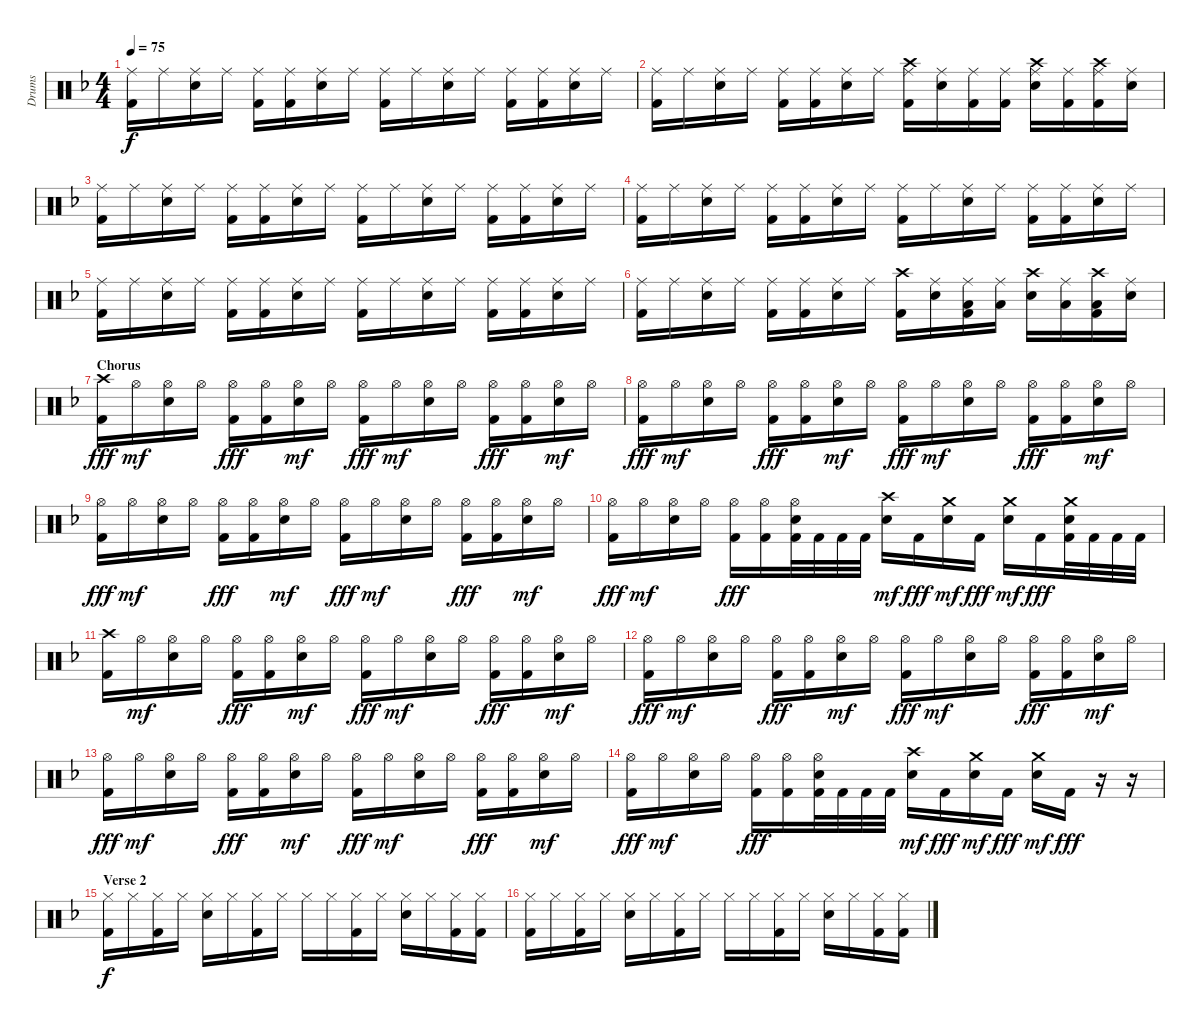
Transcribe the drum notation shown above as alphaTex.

\track ("Drums" "Drums") {instrument percussion}
\staff {score}
\articulation defaults
\ts (4 4)
\tempo 75
\clef neutral
\ks dminor
("Ride (middle)" "Kick (hit) 2").16{dy f} "Ride (middle)".16 ("Ride (middle)" "Snare (hit) 2").16 "Ride (middle)".16 ("Ride (middle)" "Kick (hit) 2").16 ("Ride (middle)" "Kick (hit) 2").16 ("Ride (middle)" "Snare (hit) 2").16 "Ride (middle)".16 ("Ride (middle)" "Kick (hit) 2").16 "Ride (middle)".16 ("Ride (middle)" "Snare (hit) 2").16 "Ride (middle)".16 ("Ride (middle)" "Kick (hit) 2").16 ("Ride (middle)" "Kick (hit) 2").16 ("Ride (middle)" "Snare (hit) 2").16 "Ride (middle)".16 |
("Ride (middle)" "Kick (hit) 2").16 "Ride (middle)".16 ("Ride (middle)" "Snare (hit) 2").16 "Ride (middle)".16 ("Ride (middle)" "Kick (hit) 2").16 ("Ride (middle)" "Kick (hit) 2").16 ("Ride (middle)" "Snare (hit) 2").16 "Ride (middle)".16 ("Ride (middle)" "Crash high (hit)" "Kick (hit) 2").16 ("Ride (middle)" "Snare (hit) 2").16 ("Ride (middle)" "Kick (hit) 2").16 ("Ride (middle)" "Kick (hit) 2").16 ("Ride (middle)" "Crash high (hit)" "Snare (hit) 2").16 ("Ride (middle)" "Kick (hit) 2").16 ("Ride (middle)" "Crash high (hit)" "Kick (hit) 2").16 ("Ride (middle)" "Snare (hit) 2").16 |
("Ride (middle)" "Kick (hit) 2").16 "Ride (middle)".16 ("Ride (middle)" "Snare (hit) 2").16 "Ride (middle)".16 ("Ride (middle)" "Kick (hit) 2").16 ("Ride (middle)" "Kick (hit) 2").16 ("Ride (middle)" "Snare (hit) 2").16 "Ride (middle)".16 ("Ride (middle)" "Kick (hit) 2").16 "Ride (middle)".16 ("Ride (middle)" "Snare (hit) 2").16 "Ride (middle)".16 ("Ride (middle)" "Kick (hit) 2").16 ("Ride (middle)" "Kick (hit) 2").16 ("Ride (middle)" "Snare (hit) 2").16 "Ride (middle)".16 |
("Ride (middle)" "Kick (hit) 2").16 "Ride (middle)".16 ("Ride (middle)" "Snare (hit) 2").16 "Ride (middle)".16 ("Ride (middle)" "Kick (hit) 2").16 ("Ride (middle)" "Kick (hit) 2").16 ("Ride (middle)" "Snare (hit) 2").16 "Ride (middle)".16 ("Ride (middle)" "Kick (hit) 2").16 "Ride (middle)".16 ("Ride (middle)" "Snare (hit) 2").16 "Ride (middle)".16 ("Ride (middle)" "Kick (hit) 2").16 ("Ride (middle)" "Kick (hit) 2").16 ("Ride (middle)" "Snare (hit) 2").16 "Ride (middle)".16 |
("Ride (middle)" "Kick (hit) 2").16 "Ride (middle)".16 ("Ride (middle)" "Snare (hit) 2").16 "Ride (middle)".16 ("Ride (middle)" "Kick (hit) 2").16 ("Ride (middle)" "Kick (hit) 2").16 ("Ride (middle)" "Snare (hit) 2").16 "Ride (middle)".16 ("Ride (middle)" "Kick (hit) 2").16 "Ride (middle)".16 ("Ride (middle)" "Snare (hit) 2").16 "Ride (middle)".16 ("Ride (middle)" "Kick (hit) 2").16 ("Ride (middle)" "Kick (hit) 2").16 ("Ride (middle)" "Snare (hit) 2").16 "Ride (middle)".16 |
("Ride (middle)" "Kick (hit) 2").16 "Ride (middle)".16 ("Ride (middle)" "Snare (hit) 2").16 "Ride (middle)".16 ("Ride (middle)" "Kick (hit) 2").16 ("Ride (middle)" "Kick (hit) 2").16 ("Ride (middle)" "Snare (hit) 2").16 "Ride (middle)".16 ("Crash high (hit)" "Kick (hit) 2").16 ("Ride (middle)" "Snare (hit) 2").16 ("Ride (middle)" "Low Tom (hit)" "Kick (hit) 2").16 ("Ride (middle)" "Low Tom (hit)").16 ("Crash high (hit)" "Snare (hit) 2").16 ("Ride (middle)" "Low Floor Tom (hit)").16 ("Crash high (hit)" "Low Floor Tom (hit)" "Kick (hit) 2").16 ("Ride (middle)" "Snare (hit) 2").16 |
\section ("" "Chorus")
("Crash high (hit)" "Kick (hit) 2").16{dy fff} "Hi-Hat (open)".16{dy mf} ("Hi-Hat (open)" "Snare (hit) 2").16 "Hi-Hat (open)".16 ("Hi-Hat (open)" "Kick (hit) 2").16{dy fff} ("Hi-Hat (open)" "Kick (hit) 2").16 ("Hi-Hat (open)" "Snare (hit) 2").16{dy mf} "Hi-Hat (open)".16 ("Hi-Hat (open)" "Kick (hit) 2").16{dy fff} "Hi-Hat (open)".16{dy mf} ("Hi-Hat (open)" "Snare (hit) 2").16 "Hi-Hat (open)".16 ("Hi-Hat (open)" "Kick (hit) 2").16{dy fff} ("Hi-Hat (open)" "Kick (hit) 2").16 ("Hi-Hat (open)" "Snare (hit) 2").16{dy mf} "Hi-Hat (open)".16 |
("Hi-Hat (open)" "Kick (hit) 2").16{dy fff} "Hi-Hat (open)".16{dy mf} ("Hi-Hat (open)" "Snare (hit) 2").16 "Hi-Hat (open)".16 ("Hi-Hat (open)" "Kick (hit) 2").16{dy fff} ("Hi-Hat (open)" "Kick (hit) 2").16 ("Hi-Hat (open)" "Snare (hit) 2").16{dy mf} "Hi-Hat (open)".16 ("Hi-Hat (open)" "Kick (hit) 2").16{dy fff} "Hi-Hat (open)".16{dy mf} ("Hi-Hat (open)" "Snare (hit) 2").16 "Hi-Hat (open)".16 ("Hi-Hat (open)" "Kick (hit) 2").16{dy fff} ("Hi-Hat (open)" "Kick (hit) 2").16 ("Hi-Hat (open)" "Snare (hit) 2").16{dy mf} "Hi-Hat (open)".16 |
("Hi-Hat (open)" "Kick (hit) 2").16{dy fff} "Hi-Hat (open)".16{dy mf} ("Hi-Hat (open)" "Snare (hit) 2").16 "Hi-Hat (open)".16 ("Hi-Hat (open)" "Kick (hit) 2").16{dy fff} ("Hi-Hat (open)" "Kick (hit) 2").16 ("Hi-Hat (open)" "Snare (hit) 2").16{dy mf} "Hi-Hat (open)".16 ("Hi-Hat (open)" "Kick (hit) 2").16{dy fff} "Hi-Hat (open)".16{dy mf} ("Hi-Hat (open)" "Snare (hit) 2").16 "Hi-Hat (open)".16 ("Hi-Hat (open)" "Kick (hit) 2").16{dy fff} ("Hi-Hat (open)" "Kick (hit) 2").16 ("Hi-Hat (open)" "Snare (hit) 2").16{dy mf} "Hi-Hat (open)".16 |
("Hi-Hat (open)" "Kick (hit) 2").16{dy fff} "Hi-Hat (open)".16{dy mf} ("Hi-Hat (open)" "Snare (hit) 2").16 "Hi-Hat (open)".16 ("Hi-Hat (open)" "Kick (hit) 2").16{dy fff} ("Hi-Hat (open)" "Kick (hit) 2").16 ("Hi-Hat (open)" "Snare (hit) 2" "Kick (hit) 2").32 "Kick (hit) 2".32 "Kick (hit) 2".32 "Kick (hit) 2".32 ("Crash high (hit)" "Snare (hit) 2").16{dy mf} "Kick (hit) 2".16{dy fff} ("Crash medium (hit)" "Snare (hit) 2").16{dy mf} "Kick (hit) 2".16{dy fff} ("Crash medium (hit)" "Snare (hit) 2").16{dy mf} "Kick (hit) 2".16{dy fff} ("Crash medium (hit)" "Snare (hit) 2" "Kick (hit) 2").32 "Kick (hit) 2".32 "Kick (hit) 2".32 "Kick (hit) 2".32 |
("Crash high (hit)" "Kick (hit) 2").16 "Hi-Hat (open)".16{dy mf} ("Hi-Hat (open)" "Snare (hit) 2").16 "Hi-Hat (open)".16 ("Hi-Hat (open)" "Kick (hit) 2").16{dy fff} ("Hi-Hat (open)" "Kick (hit) 2").16 ("Hi-Hat (open)" "Snare (hit) 2").16{dy mf} "Hi-Hat (open)".16 ("Hi-Hat (open)" "Kick (hit) 2").16{dy fff} "Hi-Hat (open)".16{dy mf} ("Hi-Hat (open)" "Snare (hit) 2").16 "Hi-Hat (open)".16 ("Hi-Hat (open)" "Kick (hit) 2").16{dy fff} ("Hi-Hat (open)" "Kick (hit) 2").16 ("Hi-Hat (open)" "Snare (hit) 2").16{dy mf} "Hi-Hat (open)".16 |
("Hi-Hat (open)" "Kick (hit) 2").16{dy fff} "Hi-Hat (open)".16{dy mf} ("Hi-Hat (open)" "Snare (hit) 2").16 "Hi-Hat (open)".16 ("Hi-Hat (open)" "Kick (hit) 2").16{dy fff} ("Hi-Hat (open)" "Kick (hit) 2").16 ("Hi-Hat (open)" "Snare (hit) 2").16{dy mf} "Hi-Hat (open)".16 ("Hi-Hat (open)" "Kick (hit) 2").16{dy fff} "Hi-Hat (open)".16{dy mf} ("Hi-Hat (open)" "Snare (hit) 2").16 "Hi-Hat (open)".16 ("Hi-Hat (open)" "Kick (hit) 2").16{dy fff} ("Hi-Hat (open)" "Kick (hit) 2").16 ("Hi-Hat (open)" "Snare (hit) 2").16{dy mf} "Hi-Hat (open)".16 |
("Hi-Hat (open)" "Kick (hit) 2").16{dy fff} "Hi-Hat (open)".16{dy mf} ("Hi-Hat (open)" "Snare (hit) 2").16 "Hi-Hat (open)".16 ("Hi-Hat (open)" "Kick (hit) 2").16{dy fff} ("Hi-Hat (open)" "Kick (hit) 2").16 ("Hi-Hat (open)" "Snare (hit) 2").16{dy mf} "Hi-Hat (open)".16 ("Hi-Hat (open)" "Kick (hit) 2").16{dy fff} "Hi-Hat (open)".16{dy mf} ("Hi-Hat (open)" "Snare (hit) 2").16 "Hi-Hat (open)".16 ("Hi-Hat (open)" "Kick (hit) 2").16{dy fff} ("Hi-Hat (open)" "Kick (hit) 2").16 ("Hi-Hat (open)" "Snare (hit) 2").16{dy mf} "Hi-Hat (open)".16 |
("Hi-Hat (open)" "Kick (hit) 2").16{dy fff} "Hi-Hat (open)".16{dy mf} ("Hi-Hat (open)" "Snare (hit) 2").16 "Hi-Hat (open)".16 ("Hi-Hat (open)" "Kick (hit) 2").16{dy fff} ("Hi-Hat (open)" "Kick (hit) 2").16 ("Hi-Hat (open)" "Snare (hit) 2" "Kick (hit) 2").32 "Kick (hit) 2".32 "Kick (hit) 2".32 "Kick (hit) 2".32 ("Crash high (hit)" "Snare (hit) 2").16{dy mf} "Kick (hit) 2".16{dy fff} ("Crash medium (hit)" "Snare (hit) 2").16{dy mf} "Kick (hit) 2".16{dy fff} ("Crash medium (hit)" "Snare (hit) 2").16{dy mf} "Kick (hit) 2".16{dy fff} r.16 r.16 |
\section ("" "Verse 2")
("Hi-Hat (closed)" "Kick (hit) 2").16{dy f} "Hi-Hat (closed)".16 ("Hi-Hat (closed)" "Kick (hit) 2").16 "Hi-Hat (closed)".16 ("Hi-Hat (closed)" "Snare (hit) 2").16 "Hi-Hat (closed)".16 ("Hi-Hat (closed)" "Kick (hit) 2").16 "Hi-Hat (closed)".16 "Hi-Hat (closed)".16 "Hi-Hat (closed)".16 ("Hi-Hat (closed)" "Kick (hit) 2").16 "Hi-Hat (closed)".16 ("Hi-Hat (closed)" "Snare (hit) 2").16 "Hi-Hat (closed)".16 ("Hi-Hat (closed)" "Kick (hit) 2").16 ("Hi-Hat (closed)" "Kick (hit) 2").16 |
("Hi-Hat (closed)" "Kick (hit) 2").16 "Hi-Hat (closed)".16 ("Hi-Hat (closed)" "Kick (hit) 2").16 "Hi-Hat (closed)".16 ("Hi-Hat (closed)" "Snare (hit) 2").16 "Hi-Hat (closed)".16 ("Hi-Hat (closed)" "Kick (hit) 2").16 "Hi-Hat (closed)".16 "Hi-Hat (closed)".16 "Hi-Hat (closed)".16 ("Hi-Hat (closed)" "Kick (hit) 2").16 "Hi-Hat (closed)".16 ("Hi-Hat (closed)" "Snare (hit) 2").16 "Hi-Hat (closed)".16 ("Hi-Hat (closed)" "Kick (hit) 2").16 ("Hi-Hat (closed)" "Kick (hit) 2").16
